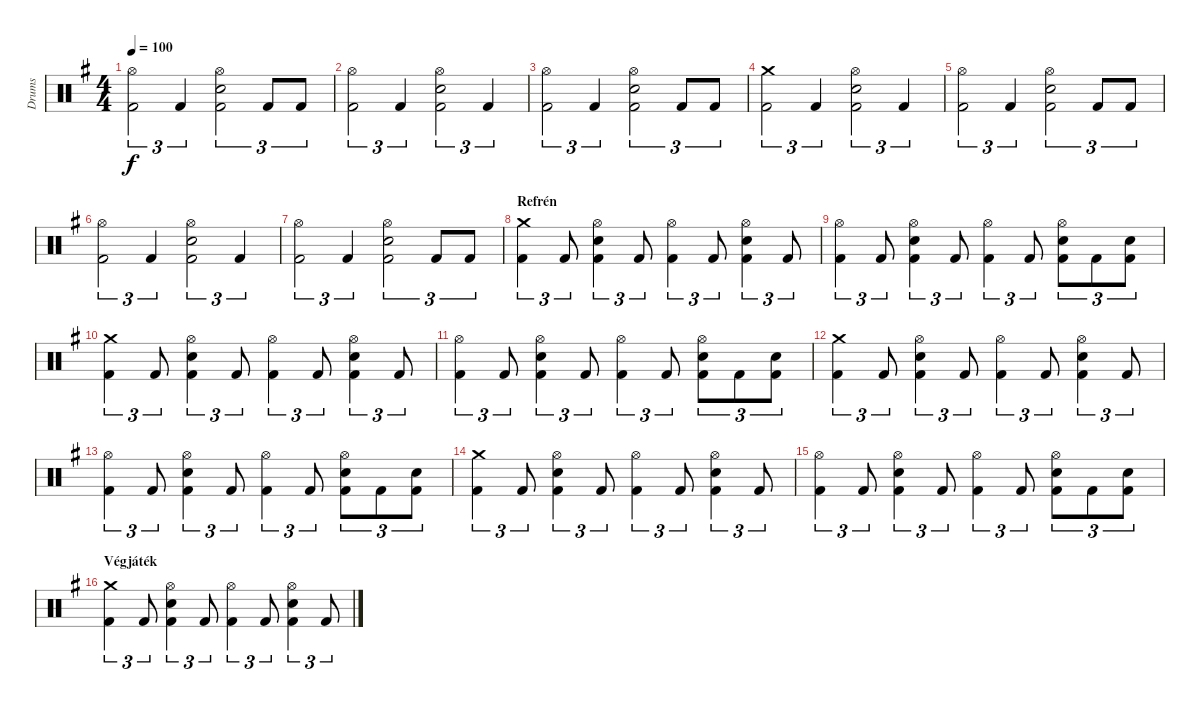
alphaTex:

\track ("Drums" "Drums") {instrument percussion}
\staff {score}
\articulation defaults
\ts (4 4)
\tempo 100
\clef neutral
\ks g
("Hi-Hat (open)" "Kick (hit) 2").2{tu (3 2) dy f} "Kick (hit) 2".4{tu (3 2)} ("Hi-Hat (open)" "Snare (hit) 2" "Kick (hit) 2").2{tu (3 2)} "Kick (hit) 2".8{tu (3 2)} "Kick (hit) 2".8{tu (3 2)} |
("Hi-Hat (open)" "Kick (hit) 2").2{tu (3 2)} "Kick (hit) 2".4{tu (3 2)} ("Hi-Hat (open)" "Snare (hit) 2" "Kick (hit) 2").2{tu (3 2)} "Kick (hit) 2".4{tu (3 2)} |
("Hi-Hat (open)" "Kick (hit) 2").2{tu (3 2)} "Kick (hit) 2".4{tu (3 2)} ("Hi-Hat (open)" "Snare (hit) 2" "Kick (hit) 2").2{tu (3 2)} "Kick (hit) 2".8{tu (3 2)} "Kick (hit) 2".8{tu (3 2)} |
("Crash medium (hit)" "Kick (hit) 2").2{tu (3 2)} "Kick (hit) 2".4{tu (3 2)} ("Hi-Hat (open)" "Snare (hit) 2" "Kick (hit) 2").2{tu (3 2)} "Kick (hit) 2".4{tu (3 2)} |
("Hi-Hat (open)" "Kick (hit) 2").2{tu (3 2)} "Kick (hit) 2".4{tu (3 2)} ("Hi-Hat (open)" "Snare (hit) 2" "Kick (hit) 2").2{tu (3 2)} "Kick (hit) 2".8{tu (3 2)} "Kick (hit) 2".8{tu (3 2)} |
("Hi-Hat (open)" "Kick (hit) 2").2{tu (3 2)} "Kick (hit) 2".4{tu (3 2)} ("Hi-Hat (open)" "Snare (hit) 2" "Kick (hit) 2").2{tu (3 2)} "Kick (hit) 2".4{tu (3 2)} |
("Hi-Hat (open)" "Kick (hit) 2").2{tu (3 2)} "Kick (hit) 2".4{tu (3 2)} ("Hi-Hat (open)" "Snare (hit) 2" "Kick (hit) 2").2{tu (3 2)} "Kick (hit) 2".8{tu (3 2)} "Kick (hit) 2".8{tu (3 2)} |
\section ("" "Refrén")
("Crash medium (hit)" "Kick (hit) 2").4{tu (3 2)} "Kick (hit) 2".8{tu (3 2)} ("Hi-Hat (open)" "Snare (hit) 2" "Kick (hit) 2").4{tu (3 2)} "Kick (hit) 2".8{tu (3 2)} ("Hi-Hat (open)" "Kick (hit) 2").4{tu (3 2)} "Kick (hit) 2".8{tu (3 2)} ("Hi-Hat (open)" "Snare (hit) 2" "Kick (hit) 2").4{tu (3 2)} "Kick (hit) 2".8{tu (3 2)} |
("Hi-Hat (open)" "Kick (hit) 2").4{tu (3 2)} "Kick (hit) 2".8{tu (3 2)} ("Hi-Hat (open)" "Snare (hit) 2" "Kick (hit) 2").4{tu (3 2)} "Kick (hit) 2".8{tu (3 2)} ("Hi-Hat (open)" "Kick (hit) 2").4{tu (3 2)} "Kick (hit) 2".8{tu (3 2)} ("Hi-Hat (open)" "Snare (hit) 2" "Kick (hit) 2").8{tu (3 2)} "Kick (hit) 2".8{tu (3 2)} ("Snare (hit) 2" "Kick (hit) 2").8{tu (3 2)} |
("Crash medium (hit)" "Kick (hit) 2").4{tu (3 2)} "Kick (hit) 2".8{tu (3 2)} ("Hi-Hat (open)" "Snare (hit) 2" "Kick (hit) 2").4{tu (3 2)} "Kick (hit) 2".8{tu (3 2)} ("Hi-Hat (open)" "Kick (hit) 2").4{tu (3 2)} "Kick (hit) 2".8{tu (3 2)} ("Hi-Hat (open)" "Snare (hit) 2" "Kick (hit) 2").4{tu (3 2)} "Kick (hit) 2".8{tu (3 2)} |
("Hi-Hat (open)" "Kick (hit) 2").4{tu (3 2)} "Kick (hit) 2".8{tu (3 2)} ("Hi-Hat (open)" "Snare (hit) 2" "Kick (hit) 2").4{tu (3 2)} "Kick (hit) 2".8{tu (3 2)} ("Hi-Hat (open)" "Kick (hit) 2").4{tu (3 2)} "Kick (hit) 2".8{tu (3 2)} ("Hi-Hat (open)" "Snare (hit) 2" "Kick (hit) 2").8{tu (3 2)} "Kick (hit) 2".8{tu (3 2)} ("Snare (hit) 2" "Kick (hit) 2").8{tu (3 2)} |
("Crash medium (hit)" "Kick (hit) 2").4{tu (3 2)} "Kick (hit) 2".8{tu (3 2)} ("Hi-Hat (open)" "Snare (hit) 2" "Kick (hit) 2").4{tu (3 2)} "Kick (hit) 2".8{tu (3 2)} ("Hi-Hat (open)" "Kick (hit) 2").4{tu (3 2)} "Kick (hit) 2".8{tu (3 2)} ("Hi-Hat (open)" "Snare (hit) 2" "Kick (hit) 2").4{tu (3 2)} "Kick (hit) 2".8{tu (3 2)} |
("Hi-Hat (open)" "Kick (hit) 2").4{tu (3 2)} "Kick (hit) 2".8{tu (3 2)} ("Hi-Hat (open)" "Snare (hit) 2" "Kick (hit) 2").4{tu (3 2)} "Kick (hit) 2".8{tu (3 2)} ("Hi-Hat (open)" "Kick (hit) 2").4{tu (3 2)} "Kick (hit) 2".8{tu (3 2)} ("Hi-Hat (open)" "Snare (hit) 2" "Kick (hit) 2").8{tu (3 2)} "Kick (hit) 2".8{tu (3 2)} ("Snare (hit) 2" "Kick (hit) 2").8{tu (3 2)} |
("Crash medium (hit)" "Kick (hit) 2").4{tu (3 2)} "Kick (hit) 2".8{tu (3 2)} ("Hi-Hat (open)" "Snare (hit) 2" "Kick (hit) 2").4{tu (3 2)} "Kick (hit) 2".8{tu (3 2)} ("Hi-Hat (open)" "Kick (hit) 2").4{tu (3 2)} "Kick (hit) 2".8{tu (3 2)} ("Hi-Hat (open)" "Snare (hit) 2" "Kick (hit) 2").4{tu (3 2)} "Kick (hit) 2".8{tu (3 2)} |
("Hi-Hat (open)" "Kick (hit) 2").4{tu (3 2)} "Kick (hit) 2".8{tu (3 2)} ("Hi-Hat (open)" "Snare (hit) 2" "Kick (hit) 2").4{tu (3 2)} "Kick (hit) 2".8{tu (3 2)} ("Hi-Hat (open)" "Kick (hit) 2").4{tu (3 2)} "Kick (hit) 2".8{tu (3 2)} ("Hi-Hat (open)" "Snare (hit) 2" "Kick (hit) 2").8{tu (3 2)} "Kick (hit) 2".8{tu (3 2)} ("Snare (hit) 2" "Kick (hit) 2").8{tu (3 2)} |
\section ("" "Végjáték")
("Crash medium (hit)" "Kick (hit) 2").4{tu (3 2)} "Kick (hit) 2".8{tu (3 2)} ("Hi-Hat (open)" "Snare (hit) 2" "Kick (hit) 2").4{tu (3 2)} "Kick (hit) 2".8{tu (3 2)} ("Hi-Hat (open)" "Kick (hit) 2").4{tu (3 2)} "Kick (hit) 2".8{tu (3 2)} ("Hi-Hat (open)" "Snare (hit) 2" "Kick (hit) 2").4{tu (3 2)} "Kick (hit) 2".8{tu (3 2)}
